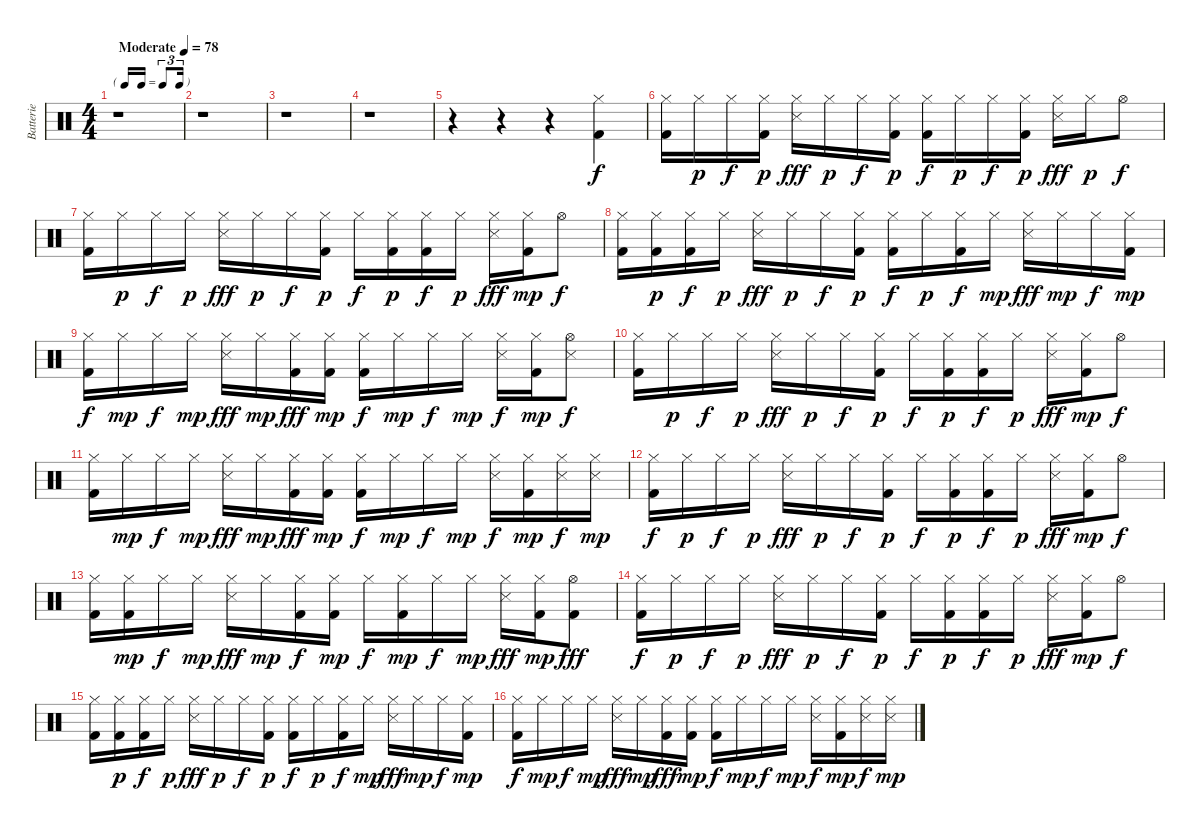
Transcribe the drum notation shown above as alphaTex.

\track ("Batterie" "Batterie") {instrument percussion}
\staff {score}
\articulation defaults
\ts (4 4)
\tf triplet16th
\tempo (78 "Moderate")
\clef neutral
\ks c
r.1{dy f} |
r.1 |
r.1 |
r.1 |
r.4 r.4 r.4 ("Hi-Hat (closed)" "Kick (hit) 2").4 |
("Hi-Hat (closed)" "Kick (hit) 2").16 "Hi-Hat (closed)".16{dy p} "Hi-Hat (closed)".16{dy f} ("Hi-Hat (closed)" "Kick (hit) 2").16{dy p} ("Hi-Hat (closed)" "Snare (side stick) 3").16{dy fff} "Hi-Hat (closed)".16{dy p} "Hi-Hat (closed)".16{dy f} ("Hi-Hat (closed)" "Kick (hit) 2").16{dy p} ("Hi-Hat (closed)" "Kick (hit) 2").16{dy f} "Hi-Hat (closed)".16{dy p} "Hi-Hat (closed)".16{dy f} ("Hi-Hat (closed)" "Kick (hit) 2").16{dy p} ("Hi-Hat (closed)" "Snare (side stick) 3").16{dy fff} "Hi-Hat (closed)".16{dy p} "Hi-Hat (open)".8{dy f} |
("Hi-Hat (closed)" "Kick (hit) 2").16 "Hi-Hat (closed)".16{dy p} "Hi-Hat (closed)".16{dy f} "Hi-Hat (closed)".16{dy p} ("Hi-Hat (closed)" "Snare (side stick) 3").16{dy fff} "Hi-Hat (closed)".16{dy p} "Hi-Hat (closed)".16{dy f} ("Hi-Hat (closed)" "Kick (hit) 2").16{dy p} "Hi-Hat (closed)".16{dy f} ("Hi-Hat (closed)" "Kick (hit) 2").16{dy p} ("Hi-Hat (closed)" "Kick (hit) 2").16{dy f} "Hi-Hat (closed)".16{dy p} ("Hi-Hat (closed)" "Snare (side stick) 3").16{dy fff} ("Hi-Hat (closed)" "Kick (hit) 2").16{dy mp} "Hi-Hat (open)".8{dy f} |
("Hi-Hat (closed)" "Kick (hit) 2").16 ("Hi-Hat (closed)" "Kick (hit) 2").16{dy p} ("Hi-Hat (closed)" "Kick (hit) 2").16{dy f} "Hi-Hat (closed)".16{dy p} ("Hi-Hat (closed)" "Snare (side stick) 3").16{dy fff} "Hi-Hat (closed)".16{dy p} "Hi-Hat (closed)".16{dy f} ("Hi-Hat (closed)" "Kick (hit) 2").16{dy p} ("Hi-Hat (closed)" "Kick (hit) 2").16{dy f} "Hi-Hat (closed)".16{dy p} ("Hi-Hat (closed)" "Kick (hit) 2").16{dy f} "Hi-Hat (closed)".16{dy mp} ("Hi-Hat (closed)" "Snare (side stick) 3").16{dy fff} "Hi-Hat (closed)".16{dy mp} "Hi-Hat (closed)".16{dy f} ("Hi-Hat (closed)" "Kick (hit) 2").16{dy mp} |
("Hi-Hat (closed)" "Kick (hit) 2").16{dy f} "Hi-Hat (closed)".16{dy mp} "Hi-Hat (closed)".16{dy f} "Hi-Hat (closed)".16{dy mp} ("Hi-Hat (closed)" "Snare (side stick) 3").16{dy fff} "Hi-Hat (closed)".16{dy mp} ("Hi-Hat (closed)" "Kick (hit) 2").16{dy fff} ("Hi-Hat (closed)" "Kick (hit) 2").16{dy mp} ("Hi-Hat (closed)" "Kick (hit) 2").16{dy f} "Hi-Hat (closed)".16{dy mp} "Hi-Hat (closed)".16{dy f} "Hi-Hat (closed)".16{dy mp} ("Hi-Hat (closed)" "Snare (side stick) 3").16{dy f} ("Hi-Hat (closed)" "Kick (hit) 2").16{dy mp} ("Hi-Hat (open)" "Snare (side stick) 3").8{dy f} |
("Hi-Hat (closed)" "Kick (hit) 2").16 "Hi-Hat (closed)".16{dy p} "Hi-Hat (closed)".16{dy f} "Hi-Hat (closed)".16{dy p} ("Hi-Hat (closed)" "Snare (side stick) 3").16{dy fff} "Hi-Hat (closed)".16{dy p} "Hi-Hat (closed)".16{dy f} ("Hi-Hat (closed)" "Kick (hit) 2").16{dy p} "Hi-Hat (closed)".16{dy f} ("Hi-Hat (closed)" "Kick (hit) 2").16{dy p} ("Hi-Hat (closed)" "Kick (hit) 2").16{dy f} "Hi-Hat (closed)".16{dy p} ("Hi-Hat (closed)" "Snare (side stick) 3").16{dy fff} ("Hi-Hat (closed)" "Kick (hit) 2").16{dy mp} "Hi-Hat (open)".8{dy f} |
("Hi-Hat (closed)" "Kick (hit) 2").16 "Hi-Hat (closed)".16{dy mp} "Hi-Hat (closed)".16{dy f} "Hi-Hat (closed)".16{dy mp} ("Hi-Hat (closed)" "Snare (side stick) 3").16{dy fff} "Hi-Hat (closed)".16{dy mp} ("Hi-Hat (closed)" "Kick (hit) 2").16{dy fff} ("Hi-Hat (closed)" "Kick (hit) 2").16{dy mp} ("Hi-Hat (closed)" "Kick (hit) 2").16{dy f} "Hi-Hat (closed)".16{dy mp} "Hi-Hat (closed)".16{dy f} "Hi-Hat (closed)".16{dy mp} ("Hi-Hat (closed)" "Snare (side stick) 3").16{dy f} ("Hi-Hat (closed)" "Kick (hit) 2").16{dy mp} ("Hi-Hat (closed)" "Snare (side stick) 3").16{dy f} ("Hi-Hat (closed)" "Snare (side stick) 3").16{dy mp} |
("Hi-Hat (closed)" "Kick (hit) 2").16{dy f} "Hi-Hat (closed)".16{dy p} "Hi-Hat (closed)".16{dy f} "Hi-Hat (closed)".16{dy p} ("Hi-Hat (closed)" "Snare (side stick) 3").16{dy fff} "Hi-Hat (closed)".16{dy p} "Hi-Hat (closed)".16{dy f} ("Hi-Hat (closed)" "Kick (hit) 2").16{dy p} "Hi-Hat (closed)".16{dy f} ("Hi-Hat (closed)" "Kick (hit) 2").16{dy p} ("Hi-Hat (closed)" "Kick (hit) 2").16{dy f} "Hi-Hat (closed)".16{dy p} ("Hi-Hat (closed)" "Snare (side stick) 3").16{dy fff} ("Hi-Hat (closed)" "Kick (hit) 2").16{dy mp} "Hi-Hat (open)".8{dy f} |
("Hi-Hat (closed)" "Kick (hit) 2").16 ("Hi-Hat (closed)" "Kick (hit) 2").16{dy mp} "Hi-Hat (closed)".16{dy f} "Hi-Hat (closed)".16{dy mp} ("Hi-Hat (closed)" "Snare (side stick) 3").16{dy fff} "Hi-Hat (closed)".16{dy mp} ("Hi-Hat (closed)" "Kick (hit) 2").16{dy f} ("Hi-Hat (closed)" "Kick (hit) 2").16{dy mp} "Hi-Hat (closed)".16{dy f} ("Hi-Hat (closed)" "Kick (hit) 2").16{dy mp} "Hi-Hat (closed)".16{dy f} "Hi-Hat (closed)".16{dy mp} ("Hi-Hat (closed)" "Snare (side stick) 3").16{dy fff} ("Hi-Hat (closed)" "Kick (hit) 2").16{dy mp} ("Hi-Hat (open)" "Kick (hit) 2").8{dy fff} |
("Hi-Hat (closed)" "Kick (hit) 2").16{dy f} "Hi-Hat (closed)".16{dy p} "Hi-Hat (closed)".16{dy f} "Hi-Hat (closed)".16{dy p} ("Hi-Hat (closed)" "Snare (side stick) 3").16{dy fff} "Hi-Hat (closed)".16{dy p} "Hi-Hat (closed)".16{dy f} ("Hi-Hat (closed)" "Kick (hit) 2").16{dy p} "Hi-Hat (closed)".16{dy f} ("Hi-Hat (closed)" "Kick (hit) 2").16{dy p} ("Hi-Hat (closed)" "Kick (hit) 2").16{dy f} "Hi-Hat (closed)".16{dy p} ("Hi-Hat (closed)" "Snare (side stick) 3").16{dy fff} ("Hi-Hat (closed)" "Kick (hit) 2").16{dy mp} "Hi-Hat (open)".8{dy f} |
("Hi-Hat (closed)" "Kick (hit) 2").16 ("Hi-Hat (closed)" "Kick (hit) 2").16{dy p} ("Hi-Hat (closed)" "Kick (hit) 2").16{dy f} "Hi-Hat (closed)".16{dy p} ("Hi-Hat (closed)" "Snare (side stick) 3").16{dy fff} "Hi-Hat (closed)".16{dy p} "Hi-Hat (closed)".16{dy f} ("Hi-Hat (closed)" "Kick (hit) 2").16{dy p} ("Hi-Hat (closed)" "Kick (hit) 2").16{dy f} "Hi-Hat (closed)".16{dy p} ("Hi-Hat (closed)" "Kick (hit) 2").16{dy f} "Hi-Hat (closed)".16{dy mp} ("Hi-Hat (closed)" "Snare (side stick) 3").16{dy fff} "Hi-Hat (closed)".16{dy mp} "Hi-Hat (closed)".16{dy f} ("Hi-Hat (closed)" "Kick (hit) 2").16{dy mp} |
("Hi-Hat (closed)" "Kick (hit) 2").16{dy f} "Hi-Hat (closed)".16{dy mp} "Hi-Hat (closed)".16{dy f} "Hi-Hat (closed)".16{dy mp} ("Hi-Hat (closed)" "Snare (side stick) 3").16{dy fff} "Hi-Hat (closed)".16{dy mp} ("Hi-Hat (closed)" "Kick (hit) 2").16{dy fff} ("Hi-Hat (closed)" "Kick (hit) 2").16{dy mp} ("Hi-Hat (closed)" "Kick (hit) 2").16{dy f} "Hi-Hat (closed)".16{dy mp} "Hi-Hat (closed)".16{dy f} "Hi-Hat (closed)".16{dy mp} ("Hi-Hat (closed)" "Snare (side stick) 3").16{dy f} ("Hi-Hat (closed)" "Kick (hit) 2").16{dy mp} ("Hi-Hat (closed)" "Snare (side stick) 3").16{dy f} ("Hi-Hat (closed)" "Snare (side stick) 3").16{dy mp}
